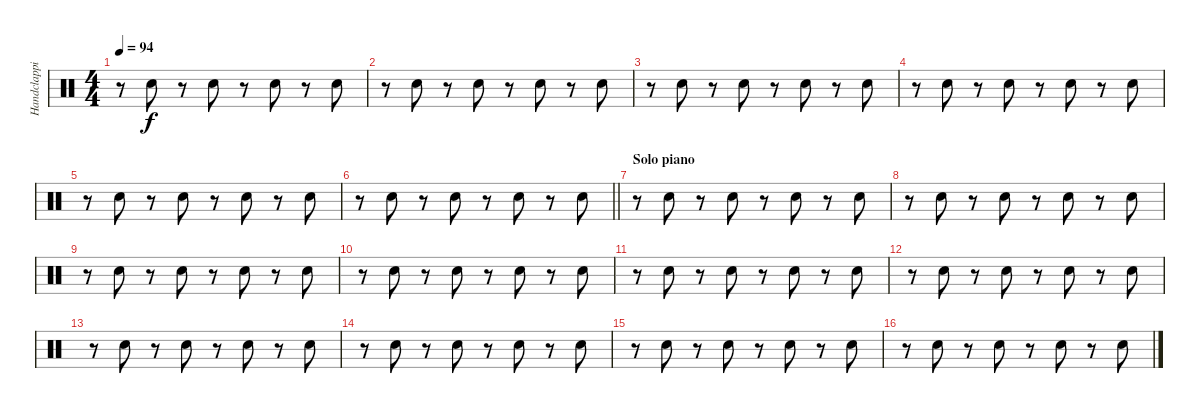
\track ("Handclapping" "Handclappi") {instrument percussion}
\staff {score}
\articulation defaults
\ts (4 4)
\tempo 94
\clef neutral
\ks c
r.8{dy f} "Hand Clap (hit)".8 r.8 "Hand Clap (hit)".8 r.8 "Hand Clap (hit)".8 r.8 "Hand Clap (hit)".8 |
r.8 "Hand Clap (hit)".8 r.8 "Hand Clap (hit)".8 r.8 "Hand Clap (hit)".8 r.8 "Hand Clap (hit)".8 |
r.8 "Hand Clap (hit)".8 r.8 "Hand Clap (hit)".8 r.8 "Hand Clap (hit)".8 r.8 "Hand Clap (hit)".8 |
r.8 "Hand Clap (hit)".8 r.8 "Hand Clap (hit)".8 r.8 "Hand Clap (hit)".8 r.8 "Hand Clap (hit)".8 |
r.8 "Hand Clap (hit)".8 r.8 "Hand Clap (hit)".8 r.8 "Hand Clap (hit)".8 r.8 "Hand Clap (hit)".8 |
\barLineRight lightlight
r.8 "Hand Clap (hit)".8 r.8 "Hand Clap (hit)".8 r.8 "Hand Clap (hit)".8 r.8 "Hand Clap (hit)".8 |
\section ("" "Solo piano")
r.8 "Hand Clap (hit)".8 r.8 "Hand Clap (hit)".8 r.8 "Hand Clap (hit)".8 r.8 "Hand Clap (hit)".8 |
r.8 "Hand Clap (hit)".8 r.8 "Hand Clap (hit)".8 r.8 "Hand Clap (hit)".8 r.8 "Hand Clap (hit)".8 |
r.8 "Hand Clap (hit)".8 r.8 "Hand Clap (hit)".8 r.8 "Hand Clap (hit)".8 r.8 "Hand Clap (hit)".8 |
r.8 "Hand Clap (hit)".8 r.8 "Hand Clap (hit)".8 r.8 "Hand Clap (hit)".8 r.8 "Hand Clap (hit)".8 |
r.8 "Hand Clap (hit)".8 r.8 "Hand Clap (hit)".8 r.8 "Hand Clap (hit)".8 r.8 "Hand Clap (hit)".8 |
r.8 "Hand Clap (hit)".8 r.8 "Hand Clap (hit)".8 r.8 "Hand Clap (hit)".8 r.8 "Hand Clap (hit)".8 |
r.8 "Hand Clap (hit)".8 r.8 "Hand Clap (hit)".8 r.8 "Hand Clap (hit)".8 r.8 "Hand Clap (hit)".8 |
r.8 "Hand Clap (hit)".8 r.8 "Hand Clap (hit)".8 r.8 "Hand Clap (hit)".8 r.8 "Hand Clap (hit)".8 |
r.8 "Hand Clap (hit)".8 r.8 "Hand Clap (hit)".8 r.8 "Hand Clap (hit)".8 r.8 "Hand Clap (hit)".8 |
r.8 "Hand Clap (hit)".8 r.8 "Hand Clap (hit)".8 r.8 "Hand Clap (hit)".8 r.8 "Hand Clap (hit)".8
